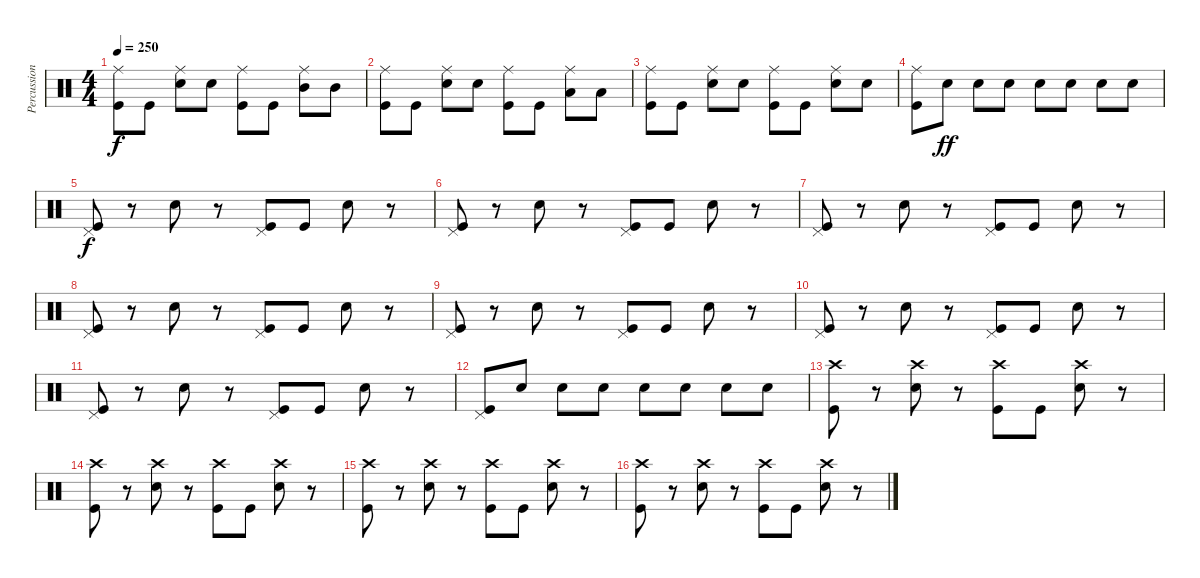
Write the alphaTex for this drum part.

\track ("Percussion" "Percussion") {instrument percussion}
\staff {score}
\articulation defaults
\ts (4 4)
\tempo 250
\clef neutral
\ks c
("Ride (middle)" "Kick (hit)").8{dy f} "Kick (hit)".8 ("Ride (middle)" "Snare (hit) 2").8 "Snare (hit) 2".8 ("Ride (middle)" "Kick (hit)").8 "Kick (hit)".8 ("Ride (middle)" "Mid Tom (hit)").8 "Mid Tom (hit)".8 |
("Ride (middle)" "Kick (hit)").8 "Kick (hit)".8 ("Ride (middle)" "Snare (hit) 2").8 "Snare (hit) 2".8 ("Ride (middle)" "Kick (hit)").8 "Kick (hit)".8 ("Ride (middle)" "Low Tom (hit)").8 "Low Tom (hit)".8 |
("Ride (middle)" "Kick (hit)").8 "Kick (hit)".8 ("Ride (middle)" "Snare (hit) 2").8 "Snare (hit) 2".8 ("Ride (middle)" "Kick (hit)").8 "Kick (hit)".8 ("Ride (middle)" "Snare (hit) 2").8 "Snare (hit) 2".8 |
("Ride (middle)" "Kick (hit)").8 "Snare (hit) 2".8{dy ff} "Snare (hit) 2".8 "Snare (hit) 2".8 "Snare (hit) 2".8 "Snare (hit) 2".8 "Snare (hit) 2".8 "Snare (hit) 2".8 |
("Pedal Hi-Hat (hit)" "Kick (hit)").8{dy f} r.8 "Snare (hit) 2".8 r.8 ("Pedal Hi-Hat (hit)" "Kick (hit)").8 "Kick (hit)".8 "Snare (hit) 2".8 r.8 |
("Pedal Hi-Hat (hit)" "Kick (hit)").8 r.8 "Snare (hit) 2".8 r.8 ("Pedal Hi-Hat (hit)" "Kick (hit)").8 "Kick (hit)".8 "Snare (hit) 2".8 r.8 |
("Pedal Hi-Hat (hit)" "Kick (hit)").8 r.8 "Snare (hit) 2".8 r.8 ("Pedal Hi-Hat (hit)" "Kick (hit)").8 "Kick (hit)".8 "Snare (hit) 2".8 r.8 |
("Pedal Hi-Hat (hit)" "Kick (hit)").8 r.8 "Snare (hit) 2".8 r.8 ("Pedal Hi-Hat (hit)" "Kick (hit)").8 "Kick (hit)".8 "Snare (hit) 2".8 r.8 |
("Pedal Hi-Hat (hit)" "Kick (hit)").8 r.8 "Snare (hit) 2".8 r.8 ("Pedal Hi-Hat (hit)" "Kick (hit)").8 "Kick (hit)".8 "Snare (hit) 2".8 r.8 |
("Pedal Hi-Hat (hit)" "Kick (hit)").8 r.8 "Snare (hit) 2".8 r.8 ("Pedal Hi-Hat (hit)" "Kick (hit)").8 "Kick (hit)".8 "Snare (hit) 2".8 r.8 |
("Pedal Hi-Hat (hit)" "Kick (hit)").8 r.8 "Snare (hit) 2".8 r.8 ("Pedal Hi-Hat (hit)" "Kick (hit)").8 "Kick (hit)".8 "Snare (hit) 2".8 r.8 |
("Pedal Hi-Hat (hit)" "Kick (hit)").8 "Snare (hit) 2".8 "Snare (hit) 2".8 "Snare (hit) 2".8 "Snare (hit) 2".8 "Snare (hit) 2".8 "Snare (hit) 2".8 "Snare (hit) 2".8 |
("Crash high (hit)" "Kick (hit)").8 r.8 ("Crash high (hit)" "Snare (hit) 2").8 r.8 ("Crash high (hit)" "Kick (hit)").8 "Kick (hit)".8 ("Crash high (hit)" "Snare (hit) 2").8 r.8 |
("Crash high (hit)" "Kick (hit)").8 r.8 ("Crash high (hit)" "Snare (hit) 2").8 r.8 ("Crash high (hit)" "Kick (hit)").8 "Kick (hit)".8 ("Crash high (hit)" "Snare (hit) 2").8 r.8 |
("Crash high (hit)" "Kick (hit)").8 r.8 ("Crash high (hit)" "Snare (hit) 2").8 r.8 ("Crash high (hit)" "Kick (hit)").8 "Kick (hit)".8 ("Crash high (hit)" "Snare (hit) 2").8 r.8 |
("Crash high (hit)" "Kick (hit)").8 r.8 ("Crash high (hit)" "Snare (hit) 2").8 r.8 ("Crash high (hit)" "Kick (hit)").8 "Kick (hit)".8 ("Crash high (hit)" "Snare (hit) 2").8 r.8
